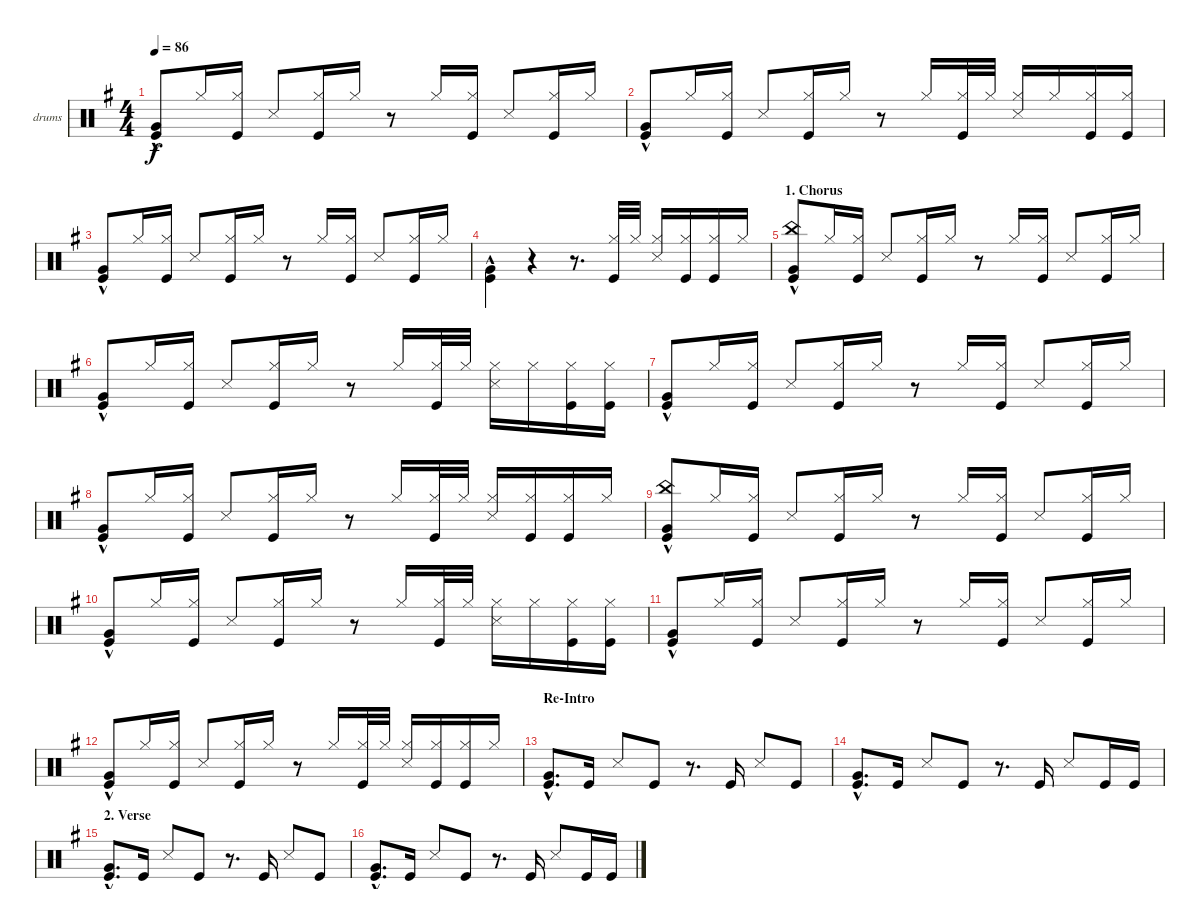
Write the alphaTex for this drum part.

\defaultSystemsLayout 4
\bracketExtendMode groupsimilarinstruments
\firstSystemTrackNameOrientation horizontal
\otherSystemsTrackNameOrientation horizontal
\track ("drums" "drums") {instrument percussion}
\staff {score}
\articulation defaults
\ts (4 4)
\tempo 86
\clef neutral
\scale
0.212622
\ks g
("Kick (hit)" "Very Low Tom (hit)"{hac}).8{dy f beam invert} "Hi-Hat (closed)".16 ("Kick (hit)" "Hi-Hat (closed)").16 "Snare (side stick) 3".8{beam invert} ("Kick (hit)" "Hi-Hat (closed)").16 "Hi-Hat (closed)".16 r.8{beam invert} "Hi-Hat (closed)".16 ("Kick (hit)" "Hi-Hat (closed)").16{beam invert} "Snare (side stick) 3".8{beam invert} ("Kick (hit)" "Hi-Hat (closed)").16 "Hi-Hat (closed)".16 |
\scale
0.268665 ("Kick (hit)" "Very Low Tom (hit)"{hac}).8{beam invert} "Hi-Hat (closed)".16 ("Kick (hit)" "Hi-Hat (closed)").16 "Snare (side stick) 3".8{beam invert} ("Kick (hit)" "Hi-Hat (closed)").16 "Hi-Hat (closed)".16 r.8{beam invert} "Hi-Hat (closed)".16 ("Kick (hit)" "Hi-Hat (closed)").32{beam invert} "Hi-Hat (closed)".32 ("Snare (side stick) 3" "Hi-Hat (closed)").16{beam invert} "Hi-Hat (closed)".16 ("Kick (hit)" "Hi-Hat (closed)").16{beam invert} ("Kick (hit)" "Hi-Hat (closed)").16{beam invert} |
\scale
0.245443 ("Kick (hit)" "Very Low Tom (hit)"{hac}).8{beam invert} "Hi-Hat (closed)".16 ("Kick (hit)" "Hi-Hat (closed)").16 "Snare (side stick) 3".8{beam invert} ("Kick (hit)" "Hi-Hat (closed)").16 "Hi-Hat (closed)".16 r.8 "Hi-Hat (closed)".16 ("Kick (hit)" "Hi-Hat (closed)").16{beam invert} "Snare (side stick) 3".8{beam invert} ("Kick (hit)" "Hi-Hat (closed)").16 "Hi-Hat (closed)".16 |
\scale
0.272708 ("Kick (hit)" "Very Low Tom (hit)"{hac}).4{beam invert} r.4{beam invert} r.8{d} ("Kick (hit)" "Hi-Hat (closed)").32{beam invert} "Hi-Hat (closed)".32 ("Snare (side stick) 3" "Hi-Hat (closed)").16{beam invert} ("Kick (hit)" "Hi-Hat (closed)").16 ("Kick (hit)" "Hi-Hat (closed)").16 "Hi-Hat (closed)".16 |
\section ("" "1. Chorus")
("Kick (hit)" "Very Low Tom (hit)"{hac} "China (hit)").8 "Hi-Hat (closed)".16 ("Kick (hit)" "Hi-Hat (closed)").16 "Snare (side stick) 3".8{beam invert} ("Kick (hit)" "Hi-Hat (closed)").16 "Hi-Hat (closed)".16 r.8 "Hi-Hat (closed)".16 ("Kick (hit)" "Hi-Hat (closed)").16 "Snare (side stick) 3".8{beam invert} ("Kick (hit)" "Hi-Hat (closed)").16 "Hi-Hat (closed)".16 |
("Kick (hit)" "Very Low Tom (hit)"{hac}).8 "Hi-Hat (closed)".16 ("Kick (hit)" "Hi-Hat (closed)").16 "Snare (side stick) 3".8{beam invert} ("Kick (hit)" "Hi-Hat (closed)").16 "Hi-Hat (closed)".16 r.8 "Hi-Hat (closed)".16{beam invert} ("Kick (hit)" "Hi-Hat (closed)").32 "Hi-Hat (closed)".32 ("Snare (side stick) 3" "Hi-Hat (closed)").16 "Hi-Hat (closed)".16 ("Kick (hit)" "Hi-Hat (closed)").16 ("Kick (hit)" "Hi-Hat (closed)").16 |
("Kick (hit)" "Very Low Tom (hit)"{hac}).8 "Hi-Hat (closed)".16 ("Kick (hit)" "Hi-Hat (closed)").16 "Snare (side stick) 3".8{beam invert} ("Kick (hit)" "Hi-Hat (closed)").16 "Hi-Hat (closed)".16 r.8{beam invert} "Hi-Hat (closed)".16 ("Kick (hit)" "Hi-Hat (closed)").16 "Snare (side stick) 3".8{beam invert} ("Kick (hit)" "Hi-Hat (closed)").16 "Hi-Hat (closed)".16 |
("Kick (hit)" "Very Low Tom (hit)"{hac}).8 "Hi-Hat (closed)".16 ("Kick (hit)" "Hi-Hat (closed)").16 "Snare (side stick) 3".8{beam invert} ("Kick (hit)" "Hi-Hat (closed)").16 "Hi-Hat (closed)".16 r.8 "Hi-Hat (closed)".16{beam invert} ("Kick (hit)" "Hi-Hat (closed)").32 "Hi-Hat (closed)".32 ("Snare (side stick) 3" "Hi-Hat (closed)").16{beam invert} ("Kick (hit)" "Hi-Hat (closed)").16 ("Kick (hit)" "Hi-Hat (closed)").16 "Hi-Hat (closed)".16 |
("Kick (hit)" "Very Low Tom (hit)"{hac} "China (hit)").8 "Hi-Hat (closed)".16 ("Kick (hit)" "Hi-Hat (closed)").16 "Snare (side stick) 3".8{beam invert} ("Kick (hit)" "Hi-Hat (closed)").16 "Hi-Hat (closed)".16 r.8{beam invert} "Hi-Hat (closed)".16 ("Kick (hit)" "Hi-Hat (closed)").16 "Snare (side stick) 3".8{beam invert} ("Kick (hit)" "Hi-Hat (closed)").16 "Hi-Hat (closed)".16 |
("Kick (hit)" "Very Low Tom (hit)"{hac}).8 "Hi-Hat (closed)".16 ("Kick (hit)" "Hi-Hat (closed)").16 "Snare (side stick) 3".8{beam invert} ("Kick (hit)" "Hi-Hat (closed)").16 "Hi-Hat (closed)".16 r.8 "Hi-Hat (closed)".16{beam invert} ("Kick (hit)" "Hi-Hat (closed)").32 "Hi-Hat (closed)".32 ("Snare (side stick) 3" "Hi-Hat (closed)").16 "Hi-Hat (closed)".16 ("Kick (hit)" "Hi-Hat (closed)").16 ("Kick (hit)" "Hi-Hat (closed)").16 |
("Kick (hit)" "Very Low Tom (hit)"{hac}).8 "Hi-Hat (closed)".16 ("Kick (hit)" "Hi-Hat (closed)").16 "Snare (side stick) 3".8{beam invert} ("Kick (hit)" "Hi-Hat (closed)").16 "Hi-Hat (closed)".16 r.8{beam invert} "Hi-Hat (closed)".16 ("Kick (hit)" "Hi-Hat (closed)").16 "Snare (side stick) 3".8{beam invert} ("Kick (hit)" "Hi-Hat (closed)").16 "Hi-Hat (closed)".16 |
("Kick (hit)" "Very Low Tom (hit)"{hac}).8 "Hi-Hat (closed)".16 ("Kick (hit)" "Hi-Hat (closed)").16 "Snare (side stick) 3".8{beam invert} ("Kick (hit)" "Hi-Hat (closed)").16 "Hi-Hat (closed)".16 r.8 "Hi-Hat (closed)".16{beam invert} ("Kick (hit)" "Hi-Hat (closed)").32 "Hi-Hat (closed)".32 ("Snare (side stick) 3" "Hi-Hat (closed)").16{beam invert} ("Kick (hit)" "Hi-Hat (closed)").16 ("Kick (hit)" "Hi-Hat (closed)").16 "Hi-Hat (closed)".16 |
\section ("" "Re-Intro")
\scale
0.479327 ("Kick (hit)" "Very Low Tom (hit)"{hac}).8{d} "Kick (hit)".16 "Snare (side stick) 3".8 "Kick (hit)".8 r.8{d} "Kick (hit)".16 "Snare (side stick) 3".8 "Kick (hit)".8 |
\scale
0.52068 ("Kick (hit)" "Very Low Tom (hit)"{hac}).8{d} "Kick (hit)".16 "Snare (side stick) 3".8 "Kick (hit)".8 r.8{d} "Kick (hit)".16 "Snare (side stick) 3".8 "Kick (hit)".16 "Kick (hit)".16 |
\section ("" "2. Verse")
("Kick (hit)" "Very Low Tom (hit)"{hac}).8{d} "Kick (hit)".16 "Snare (side stick) 3".8 "Kick (hit)".8 r.8{d} "Kick (hit)".16 "Snare (side stick) 3".8 "Kick (hit)".8 |
("Kick (hit)" "Very Low Tom (hit)"{hac}).8{d} "Kick (hit)".16 "Snare (side stick) 3".8 "Kick (hit)".8 r.8{d} "Kick (hit)".16 "Snare (side stick) 3".8 "Kick (hit)".16 "Kick (hit)".16
